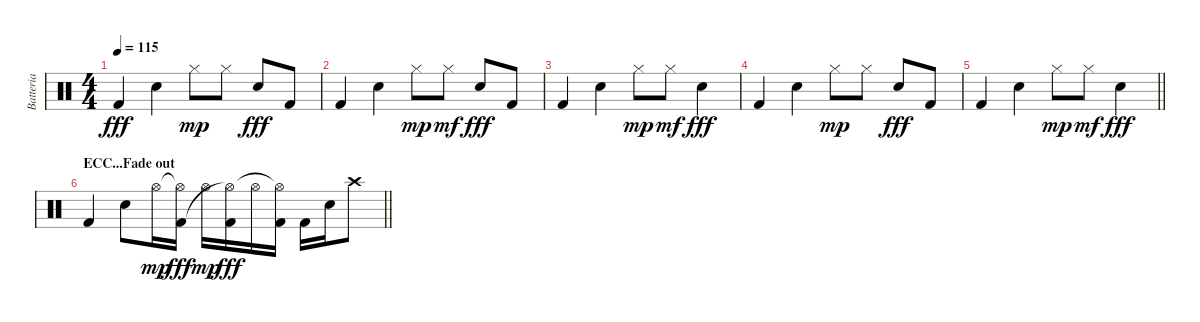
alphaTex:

\track ("Batteria" "Batteria") {instrument percussion}
\staff {score}
\articulation defaults
\ts (4 4)
\tempo 115
\clef neutral
\ks c "Kick (hit) 2".4{dy fff} "Snare (hit) 2".4 "Hi-Hat (closed)".8{dy mp} "Hi-Hat (closed)".8 "Snare (hit) 2".8{dy fff} "Kick (hit) 2".8
|
"Kick (hit) 2".4 "Snare (hit) 2".4 "Hi-Hat (closed)".8{dy mp} "Hi-Hat (closed)".8{dy mf} "Snare (hit) 2".8{dy fff} "Kick (hit) 2".8 |
"Kick (hit) 2".4 "Snare (hit) 2".4 "Hi-Hat (closed)".8{dy mp} "Hi-Hat (closed)".8{dy mf} "Snare (hit) 2".4{dy fff} |
"Kick (hit) 2".4 "Snare (hit) 2".4 "Hi-Hat (closed)".8{dy mp} "Hi-Hat (closed)".8 "Snare (hit) 2".8{dy fff} "Kick (hit) 2".8 |
\barLineRight lightlight "Kick (hit) 2".4 "Snare (hit) 2".4 "Hi-Hat (closed)".8{dy mp} "Hi-Hat (closed)".8{dy mf} "Snare (hit) 2".4{dy fff}
|
\section ("" "ECC...Fade out")
\barLineRight lightlight "Kick (hit) 2".4 "Snare (hit) 2".8 "Hi-Hat (open)".16{dy mp}
("Hi-Hat (open)"{t} "Kick (hit) 2").16{dy fff} "Hi-Hat (open)".16{dy mp} ("Kick (hit) 2" "Hi-Hat (open)"{t}).16{dy fff} "Hi-Hat (open)".16 ("Kick (hit) 2" "Hi-Hat (open)"{t}).16 "Kick (hit) 2".16 "Snare (hit) 2".16 "Crash high (hit)".8
